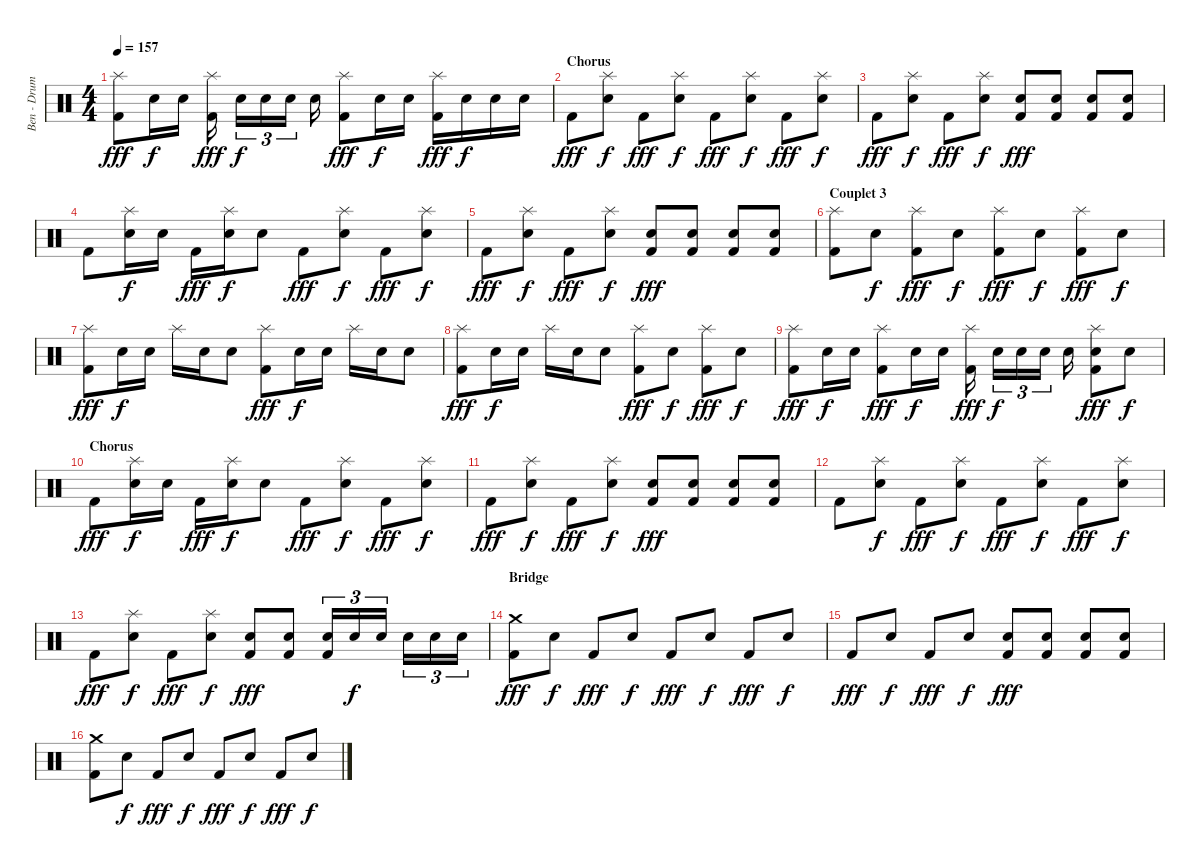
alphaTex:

\track ("Ben - Drums" "Ben - Drum") {instrument percussion}
\staff {score}
\articulation defaults
\ts (4 4)
\tempo 157
\clef neutral
\ks c
("Splash (hit)" "Kick (hit) 2").8{dy fff} "Electric Snare (hit)".16{dy f} "Electric Snare (hit)".16 ("Splash (hit)" "Kick (hit) 2").16{dy fff} "Electric Snare (hit)".16{tu (3 2) dy f} "Electric Snare (hit)".16{tu (3 2)} "Electric Snare (hit)".16{tu (3 2)} "Electric Snare (hit)".16 ("Splash (hit)" "Kick (hit) 2").8{dy fff} "Electric Snare (hit)".16{dy f} "Electric Snare (hit)".16 ("Splash (hit)" "Kick (hit) 2").16{dy fff} "Electric Snare (hit)".16{dy f} "Electric Snare (hit)".16 "Electric Snare (hit)".16 |
\section ("" "Chorus")
"Kick (hit) 2".8{dy fff} ("Splash (hit)" "Electric Snare (hit)").8{dy f} "Kick (hit) 2".8{dy fff} ("Splash (hit)" "Electric Snare (hit)").8{dy f} "Kick (hit) 2".8{dy fff} ("Splash (hit)" "Electric Snare (hit)").8{dy f} "Kick (hit) 2".8{dy fff} ("Splash (hit)" "Electric Snare (hit)").8{dy f} |
"Kick (hit) 2".8{dy fff} ("Splash (hit)" "Electric Snare (hit)").8{dy f} "Kick (hit) 2".8{dy fff} ("Splash (hit)" "Electric Snare (hit)").8{dy f} ("Electric Snare (hit)" "Kick (hit) 2").8{dy fff} ("Electric Snare (hit)" "Kick (hit) 2").8 ("Electric Snare (hit)" "Kick (hit) 2").8 ("Electric Snare (hit)" "Kick (hit) 2").8 |
"Kick (hit) 2".8 ("Splash (hit)" "Electric Snare (hit)").16{dy f} "Electric Snare (hit)".16 "Kick (hit) 2".16{dy fff} ("Splash (hit)" "Electric Snare (hit)").16{dy f} "Electric Snare (hit)".8 "Kick (hit) 2".8{dy fff} ("Splash (hit)" "Electric Snare (hit)").8{dy f} "Kick (hit) 2".8{dy fff} ("Splash (hit)" "Electric Snare (hit)").8{dy f} |
"Kick (hit) 2".8{dy fff} ("Splash (hit)" "Electric Snare (hit)").8{dy f} "Kick (hit) 2".8{dy fff} ("Splash (hit)" "Electric Snare (hit)").8{dy f} ("Electric Snare (hit)" "Kick (hit) 2").8{dy fff} ("Electric Snare (hit)" "Kick (hit) 2").8 ("Electric Snare (hit)" "Kick (hit) 2").8 ("Electric Snare (hit)" "Kick (hit) 2").8 |
\section ("" "Couplet 3")
("Splash (hit)" "Kick (hit) 2").8 "Electric Snare (hit)".8{dy f} ("Splash (hit)" "Kick (hit) 2").8{dy fff} "Electric Snare (hit)".8{dy f} ("Splash (hit)" "Kick (hit) 2").8{dy fff} "Electric Snare (hit)".8{dy f} ("Splash (hit)" "Kick (hit) 2").8{dy fff} "Electric Snare (hit)".8{dy f} |
("Splash (hit)" "Kick (hit) 2").8{dy fff} "Electric Snare (hit)".16{dy f} "Electric Snare (hit)".16 "Splash (hit)".16 "Electric Snare (hit)".16 "Electric Snare (hit)".8 ("Splash (hit)" "Kick (hit) 2").8{dy fff} "Electric Snare (hit)".16{dy f} "Electric Snare (hit)".16 "Splash (hit)".16 "Electric Snare (hit)".16 "Electric Snare (hit)".8 |
("Splash (hit)" "Kick (hit) 2").8{dy fff} "Electric Snare (hit)".16{dy f} "Electric Snare (hit)".16 "Splash (hit)".16 "Electric Snare (hit)".16 "Electric Snare (hit)".8 ("Splash (hit)" "Kick (hit) 2").8{dy fff} "Electric Snare (hit)".8{dy f} ("Splash (hit)" "Kick (hit) 2").8{dy fff} "Electric Snare (hit)".8{dy f} |
("Splash (hit)" "Kick (hit) 2").8{dy fff} "Electric Snare (hit)".16{dy f} "Electric Snare (hit)".16 ("Splash (hit)" "Kick (hit) 2").8{dy fff} "Electric Snare (hit)".16{dy f} "Electric Snare (hit)".16 ("Splash (hit)" "Kick (hit) 2").16{dy fff} "Electric Snare (hit)".16{tu (3 2) dy f} "Electric Snare (hit)".16{tu (3 2)} "Electric Snare (hit)".16{tu (3 2)} "Electric Snare (hit)".16 ("Splash (hit)" "Electric Snare (hit)" "Kick (hit) 2").8{dy fff} "Electric Snare (hit)".8{dy f} |
\section ("" "Chorus")
"Kick (hit) 2".8{dy fff} ("Splash (hit)" "Electric Snare (hit)").16{dy f} "Electric Snare (hit)".16 "Kick (hit) 2".16{dy fff} ("Splash (hit)" "Electric Snare (hit)").16{dy f} "Electric Snare (hit)".8 "Kick (hit) 2".8{dy fff} ("Splash (hit)" "Electric Snare (hit)").8{dy f} "Kick (hit) 2".8{dy fff} ("Splash (hit)" "Electric Snare (hit)").8{dy f} |
"Kick (hit) 2".8{dy fff} ("Splash (hit)" "Electric Snare (hit)").8{dy f} "Kick (hit) 2".8{dy fff} ("Splash (hit)" "Electric Snare (hit)").8{dy f} ("Electric Snare (hit)" "Kick (hit) 2").8{dy fff} ("Electric Snare (hit)" "Kick (hit) 2").8 ("Electric Snare (hit)" "Kick (hit) 2").8 ("Electric Snare (hit)" "Kick (hit) 2").8 |
"Kick (hit) 2".8 ("Splash (hit)" "Electric Snare (hit)").8{dy f} "Kick (hit) 2".8{dy fff} ("Splash (hit)" "Electric Snare (hit)").8{dy f} "Kick (hit) 2".8{dy fff} ("Splash (hit)" "Electric Snare (hit)").8{dy f} "Kick (hit) 2".8{dy fff} ("Splash (hit)" "Electric Snare (hit)").8{dy f} |
"Kick (hit) 2".8{dy fff} ("Splash (hit)" "Electric Snare (hit)").8{dy f} "Kick (hit) 2".8{dy fff} ("Splash (hit)" "Electric Snare (hit)").8{dy f} ("Electric Snare (hit)" "Kick (hit) 2").8{dy fff} ("Electric Snare (hit)" "Kick (hit) 2").8 ("Electric Snare (hit)" "Kick (hit) 2").16{tu (3 2)} "Electric Snare (hit)".16{tu (3 2) dy f} "Electric Snare (hit)".16{tu (3 2)} "Electric Snare (hit)".16{tu (3 2)} "Electric Snare (hit)".16{tu (3 2)} "Electric Snare (hit)".16{tu (3 2)} |
\section ("" "Bridge")
("Crash medium (hit)" "Kick (hit) 2").8{dy fff} "Electric Snare (hit)".8{dy f} "Kick (hit) 2".8{dy fff} "Electric Snare (hit)".8{dy f} "Kick (hit) 2".8{dy fff} "Electric Snare (hit)".8{dy f} "Kick (hit) 2".8{dy fff} "Electric Snare (hit)".8{dy f} |
"Kick (hit) 2".8{dy fff} "Electric Snare (hit)".8{dy f} "Kick (hit) 2".8{dy fff} "Electric Snare (hit)".8{dy f} ("Electric Snare (hit)" "Kick (hit) 2").8{dy fff} ("Electric Snare (hit)" "Kick (hit) 2").8 ("Electric Snare (hit)" "Kick (hit) 2").8 ("Electric Snare (hit)" "Kick (hit) 2").8 |
("Crash medium (hit)" "Kick (hit) 2").8 "Electric Snare (hit)".8{dy f} "Kick (hit) 2".8{dy fff} "Electric Snare (hit)".8{dy f} "Kick (hit) 2".8{dy fff} "Electric Snare (hit)".8{dy f} "Kick (hit) 2".8{dy fff} "Electric Snare (hit)".8{dy f}
